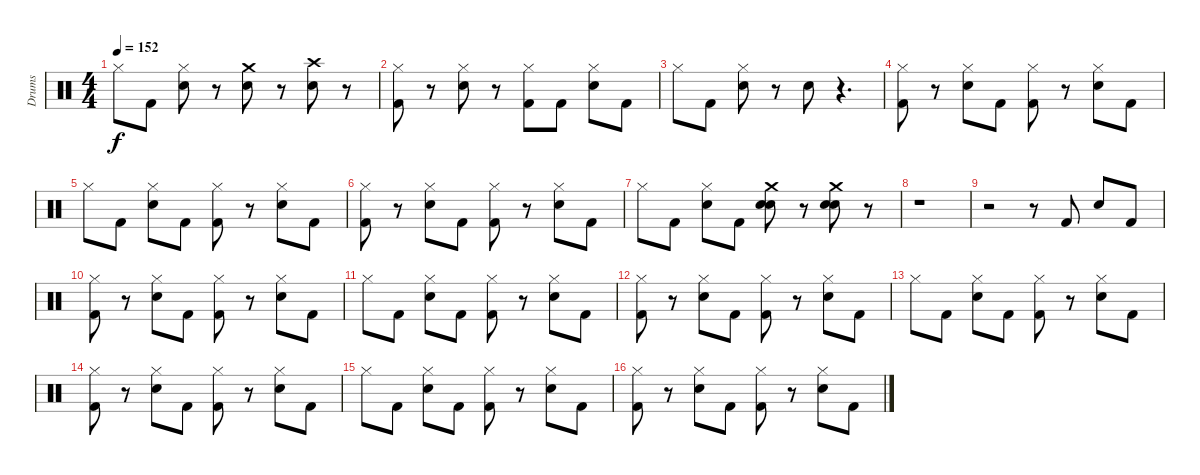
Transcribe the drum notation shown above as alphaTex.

\track ("Drums" "Drums") {instrument percussion}
\staff {score}
\articulation defaults
\ts (4 4)
\tempo 152
\clef neutral
\ks c "Hi-Hat (closed)".8{dy f} "Kick (hit) 2".8
("Electric Snare (hit)" "Hi-Hat (closed)").8 r.8 ("Electric Snare (hit)" "Crash medium (hit)").8 r.8 ("Electric Snare (hit)" "Crash high (hit)").8 r.8 |
("Kick (hit) 2" "Hi-Hat (closed)").8 r.8 ("Electric Snare (hit)" "Hi-Hat (closed)").8 r.8 ("Kick (hit) 2" "Hi-Hat (closed)").8 "Kick (hit) 2".8 ("Electric Snare (hit)" "Hi-Hat (closed)").8 "Kick (hit) 2".8 |
"Hi-Hat (closed)".8 "Kick (hit) 2".8 ("Electric Snare (hit)" "Hi-Hat (closed)").8 r.8 "Electric Snare (hit)".8 r.4{d} |
("Kick (hit) 2" "Hi-Hat (closed)").8 r.8 ("Electric Snare (hit)" "Hi-Hat (closed)").8 "Kick (hit) 2".8 ("Kick (hit) 2" "Hi-Hat (closed)").8 r.8 ("Electric Snare (hit)" "Hi-Hat (closed)").8 "Kick (hit) 2".8 |
"Hi-Hat (closed)".8 "Kick (hit) 2".8 ("Electric Snare (hit)" "Hi-Hat (closed)").8 "Kick (hit) 2".8 ("Kick (hit) 2" "Hi-Hat (closed)").8 r.8 ("Electric Snare (hit)" "Hi-Hat (closed)").8 "Kick (hit) 2".8 |
("Kick (hit) 2" "Hi-Hat (closed)").8 r.8 ("Electric Snare (hit)" "Hi-Hat (closed)").8 "Kick (hit) 2".8 ("Kick (hit) 2" "Hi-Hat (closed)").8 r.8 ("Electric Snare (hit)" "Hi-Hat (closed)").8 "Kick (hit) 2".8 |
"Hi-Hat (closed)".8 "Kick (hit) 2".8 ("Electric Snare (hit)" "Hi-Hat (closed)").8 "Kick (hit) 2".8 ("Electric Snare (hit)" "Electric Snare (hit)" "Crash medium (hit)").8 r.8 ("Electric Snare (hit)" "Electric Snare (hit)" "Crash medium (hit)").8 r.8 |
r.1 |
r.2 r.8 "Kick (hit) 2".8 "Electric Snare (hit)".8 "Kick (hit) 2".8 |
("Kick (hit) 2" "Hi-Hat (closed)").8 r.8 ("Electric Snare (hit)" "Hi-Hat (closed)").8 "Kick (hit) 2".8 ("Kick (hit) 2" "Hi-Hat (closed)").8 r.8 ("Electric Snare (hit)" "Hi-Hat (closed)").8 "Kick (hit) 2".8 |
"Hi-Hat (closed)".8 "Kick (hit) 2".8 ("Electric Snare (hit)" "Hi-Hat (closed)").8 "Kick (hit) 2".8 ("Kick (hit) 2" "Hi-Hat (closed)").8 r.8 ("Electric Snare (hit)" "Hi-Hat (closed)").8 "Kick (hit) 2".8 |
("Kick (hit) 2" "Hi-Hat (closed)").8 r.8 ("Electric Snare (hit)" "Hi-Hat (closed)").8 "Kick (hit) 2".8 ("Kick (hit) 2" "Hi-Hat (closed)").8 r.8 ("Electric Snare (hit)" "Hi-Hat (closed)").8 "Kick (hit) 2".8 |
"Hi-Hat (closed)".8 "Kick (hit) 2".8 ("Electric Snare (hit)" "Hi-Hat (closed)").8 "Kick (hit) 2".8 ("Kick (hit) 2" "Hi-Hat (closed)").8 r.8 ("Electric Snare (hit)" "Hi-Hat (closed)").8 "Kick (hit) 2".8 |
("Kick (hit) 2" "Hi-Hat (closed)").8 r.8 ("Electric Snare (hit)" "Hi-Hat (closed)").8 "Kick (hit) 2".8 ("Kick (hit) 2" "Hi-Hat (closed)").8 r.8 ("Electric Snare (hit)" "Hi-Hat (closed)").8 "Kick (hit) 2".8 |
"Hi-Hat (closed)".8 "Kick (hit) 2".8 ("Electric Snare (hit)" "Hi-Hat (closed)").8 "Kick (hit) 2".8 ("Kick (hit) 2" "Hi-Hat (closed)").8 r.8 ("Electric Snare (hit)" "Hi-Hat (closed)").8 "Kick (hit) 2".8 |
("Kick (hit) 2" "Hi-Hat (closed)").8 r.8 ("Electric Snare (hit)" "Hi-Hat (closed)").8 "Kick (hit) 2".8 ("Kick (hit) 2" "Hi-Hat (closed)").8 r.8 ("Electric Snare (hit)" "Hi-Hat (closed)").8 "Kick (hit) 2".8
